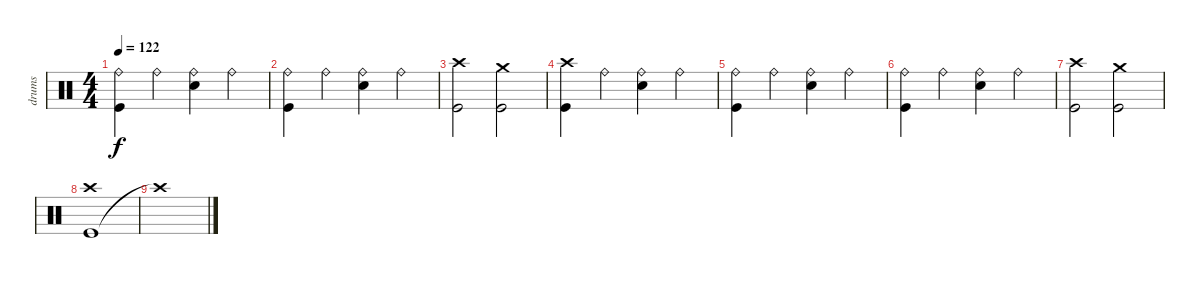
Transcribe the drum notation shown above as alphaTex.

\track ("drums" "drums") {instrument percussion}
\staff {score}
\articulation defaults
\ts (4 4)
\tempo 122
\clef neutral
\ks c
("Kick (hit)" "Ride (bell)").4{dy f} "Ride (bell)".4 ("Snare (hit) 2" "Ride (bell)").4 "Ride (bell)".4 |
("Kick (hit)" "Ride (bell)").4 "Ride (bell)".4 ("Snare (hit) 2" "Ride (bell)").4 "Ride (bell)".4 |
("Kick (hit)" "Crash high (hit)").2 ("Kick (hit)" "Crash medium (hit)").2 |
("Kick (hit)" "Crash high (hit)").4 "Ride (bell)".4 ("Snare (hit) 2" "Ride (bell)").4 "Ride (bell)".4 |
("Kick (hit)" "Ride (bell)").4 "Ride (bell)".4 ("Snare (hit) 2" "Ride (bell)").4 "Ride (bell)".4 |
("Kick (hit)" "Ride (bell)").4 "Ride (bell)".4 ("Snare (hit) 2" "Ride (bell)").4 "Ride (bell)".4 |
("Kick (hit)" "Crash high (hit)").2 ("Kick (hit)" "Crash medium (hit)").2 |
("Kick (hit)" "Crash high (hit)").1 |
"Crash high (hit)"{t}.1
